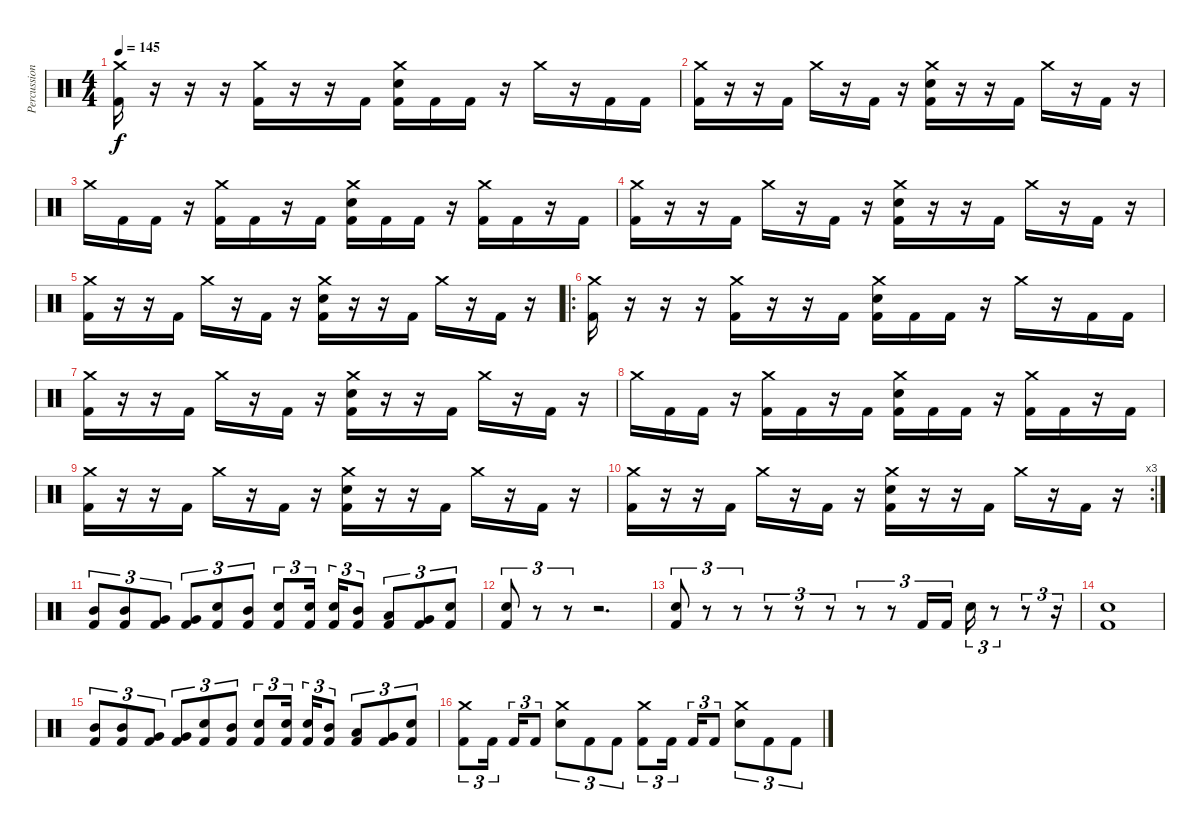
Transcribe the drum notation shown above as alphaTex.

\track ("Percussion" "Percussion") {instrument percussion}
\staff {score}
\articulation defaults
\ts (4 4)
\tempo 145
\clef neutral
\ks c
("Crash medium (hit)" "Kick (hit) 2").16{dy f} r.16 r.16 r.16 ("Crash medium (hit)" "Kick (hit) 2").16 r.16 r.16 "Kick (hit) 2".16 ("Crash medium (hit)" "Electric Snare (hit)" "Kick (hit) 2").16 "Kick (hit) 2".16 "Kick (hit) 2".16 r.16 "Crash medium (hit)".16 r.16 "Kick (hit) 2".16 "Kick (hit) 2".16 |
("Crash medium (hit)" "Kick (hit) 2").16 r.16 r.16 "Kick (hit) 2".16 "Crash medium (hit)".16 r.16 "Kick (hit) 2".16 r.16 ("Crash medium (hit)" "Electric Snare (hit)" "Kick (hit) 2").16 r.16 r.16 "Kick (hit) 2".16 "Crash medium (hit)".16 r.16 "Kick (hit) 2".16 r.16 |
"Crash medium (hit)".16 "Kick (hit) 2".16 "Kick (hit) 2".16 r.16 ("Crash medium (hit)" "Kick (hit) 2").16 "Kick (hit) 2".16 r.16 "Kick (hit) 2".16 ("Crash medium (hit)" "Electric Snare (hit)" "Kick (hit) 2").16 "Kick (hit) 2".16 "Kick (hit) 2".16 r.16 ("Crash medium (hit)" "Kick (hit) 2").16 "Kick (hit) 2".16 r.16 "Kick (hit) 2".16 |
("Crash medium (hit)" "Kick (hit) 2").16 r.16 r.16 "Kick (hit) 2".16 "Crash medium (hit)".16 r.16 "Kick (hit) 2".16 r.16 ("Crash medium (hit)" "Electric Snare (hit)" "Kick (hit) 2").16 r.16 r.16 "Kick (hit) 2".16 "Crash medium (hit)".16 r.16 "Kick (hit) 2".16 r.16 |
("Crash medium (hit)" "Kick (hit) 2").16 r.16 r.16 "Kick (hit) 2".16 "Crash medium (hit)".16 r.16 "Kick (hit) 2".16 r.16 ("Crash medium (hit)" "Electric Snare (hit)" "Kick (hit) 2").16 r.16 r.16 "Kick (hit) 2".16 "Crash medium (hit)".16 r.16 "Kick (hit) 2".16 r.16 |
\ro
("Crash medium (hit)" "Kick (hit) 2").16 r.16 r.16 r.16 ("Crash medium (hit)" "Kick (hit) 2").16 r.16 r.16 "Kick (hit) 2".16 ("Crash medium (hit)" "Electric Snare (hit)" "Kick (hit) 2").16 "Kick (hit) 2".16 "Kick (hit) 2".16 r.16 "Crash medium (hit)".16 r.16 "Kick (hit) 2".16 "Kick (hit) 2".16 |
("Crash medium (hit)" "Kick (hit) 2").16 r.16 r.16 "Kick (hit) 2".16 "Crash medium (hit)".16 r.16 "Kick (hit) 2".16 r.16 ("Crash medium (hit)" "Electric Snare (hit)" "Kick (hit) 2").16 r.16 r.16 "Kick (hit) 2".16 "Crash medium (hit)".16 r.16 "Kick (hit) 2".16 r.16 |
"Crash medium (hit)".16 "Kick (hit) 2".16 "Kick (hit) 2".16 r.16 ("Crash medium (hit)" "Kick (hit) 2").16 "Kick (hit) 2".16 r.16 "Kick (hit) 2".16 ("Crash medium (hit)" "Electric Snare (hit)" "Kick (hit) 2").16 "Kick (hit) 2".16 "Kick (hit) 2".16 r.16 ("Crash medium (hit)" "Kick (hit) 2").16 "Kick (hit) 2".16 r.16 "Kick (hit) 2".16 |
("Crash medium (hit)" "Kick (hit) 2").16 r.16 r.16 "Kick (hit) 2".16 "Crash medium (hit)".16 r.16 "Kick (hit) 2".16 r.16 ("Crash medium (hit)" "Electric Snare (hit)" "Kick (hit) 2").16 r.16 r.16 "Kick (hit) 2".16 "Crash medium (hit)".16 r.16 "Kick (hit) 2".16 r.16 |
\rc 3
("Crash medium (hit)" "Kick (hit) 2").16 r.16 r.16 "Kick (hit) 2".16 "Crash medium (hit)".16 r.16 "Kick (hit) 2".16 r.16 ("Crash medium (hit)" "Electric Snare (hit)" "Kick (hit) 2").16 r.16 r.16 "Kick (hit) 2".16 "Crash medium (hit)".16 r.16 "Kick (hit) 2".16 r.16 |
("Mid Tom (hit)" "Kick (hit) 2").8{tu (3 2)} ("Mid Tom (hit)" "Kick (hit) 2").8{tu (3 2)} ("Very Low Tom (hit)" "Kick (hit) 2").8{tu (3 2)} ("Very Low Tom (hit)" "Kick (hit) 2").8{tu (3 2)} ("Electric Snare (hit)" "Kick (hit) 2").8{tu (3 2)} ("Mid Tom (hit)" "Kick (hit) 2").8{tu (3 2)} ("Electric Snare (hit)" "Kick (hit) 2").8{tu (3 2)} ("Electric Snare (hit)" "Kick (hit) 2").16{tu (3 2) beam splitsecondary} ("Electric Snare (hit)" "Kick (hit) 2").16{tu (3 2)} ("Mid Tom (hit)" "Kick (hit) 2").8{tu (3 2)} ("Low Tom (hit)" "Kick (hit) 2").8{tu (3 2)} ("Very Low Tom (hit)" "Kick (hit) 2").8{tu (3 2)} ("Electric Snare (hit)" "Kick (hit) 2").8{tu (3 2)} |
("Electric Snare (hit)" "Kick (hit) 2").8{tu (3 2)} r.8{tu (3 2)} r.8{tu (3 2)} r.2{d} |
("Electric Snare (hit)" "Kick (hit) 2").8{tu (3 2)} r.8{tu (3 2)} r.8{tu (3 2)} r.8{tu (3 2)} r.8{tu (3 2)} r.8{tu (3 2)} r.8{tu (3 2)} r.8{tu (3 2)} "Kick (hit) 2".16{tu (3 2)} "Kick (hit) 2".16{tu (3 2)} "Electric Snare (hit)".16{tu (3 2)} r.8{tu (3 2)} r.8{tu (3 2)} r.16{tu (3 2)} |
("Electric Snare (hit)" "Kick (hit) 2").1 |
("Mid Tom (hit)" "Kick (hit) 2").8{tu (3 2)} ("Mid Tom (hit)" "Kick (hit) 2").8{tu (3 2)} ("Very Low Tom (hit)" "Kick (hit) 2").8{tu (3 2)} ("Very Low Tom (hit)" "Kick (hit) 2").8{tu (3 2)} ("Electric Snare (hit)" "Kick (hit) 2").8{tu (3 2)} ("Mid Tom (hit)" "Kick (hit) 2").8{tu (3 2)} ("Electric Snare (hit)" "Kick (hit) 2").8{tu (3 2)} ("Electric Snare (hit)" "Kick (hit) 2").16{tu (3 2) beam splitsecondary} ("Electric Snare (hit)" "Kick (hit) 2").16{tu (3 2)} ("Mid Tom (hit)" "Kick (hit) 2").8{tu (3 2)} ("Low Tom (hit)" "Kick (hit) 2").8{tu (3 2)} ("Very Low Tom (hit)" "Kick (hit) 2").8{tu (3 2)} ("Electric Snare (hit)" "Kick (hit) 2").8{tu (3 2)} |
("Crash medium (hit)" "Kick (hit) 2").8{tu (3 2)} "Kick (hit) 2".16{tu (3 2) beam splitsecondary} "Kick (hit) 2".16{tu (3 2)} "Kick (hit) 2".8{tu (3 2)} ("Crash medium (hit)" "Electric Snare (hit)").8{tu (3 2)} "Kick (hit) 2".8{tu (3 2)} "Kick (hit) 2".8{tu (3 2)} ("Crash medium (hit)" "Kick (hit) 2").8{tu (3 2)} "Kick (hit) 2".16{tu (3 2) beam splitsecondary} "Kick (hit) 2".16{tu (3 2)} "Kick (hit) 2".8{tu (3 2)} ("Crash medium (hit)" "Electric Snare (hit)").8{tu (3 2)} "Kick (hit) 2".8{tu (3 2)} "Kick (hit) 2".8{tu (3 2)}
